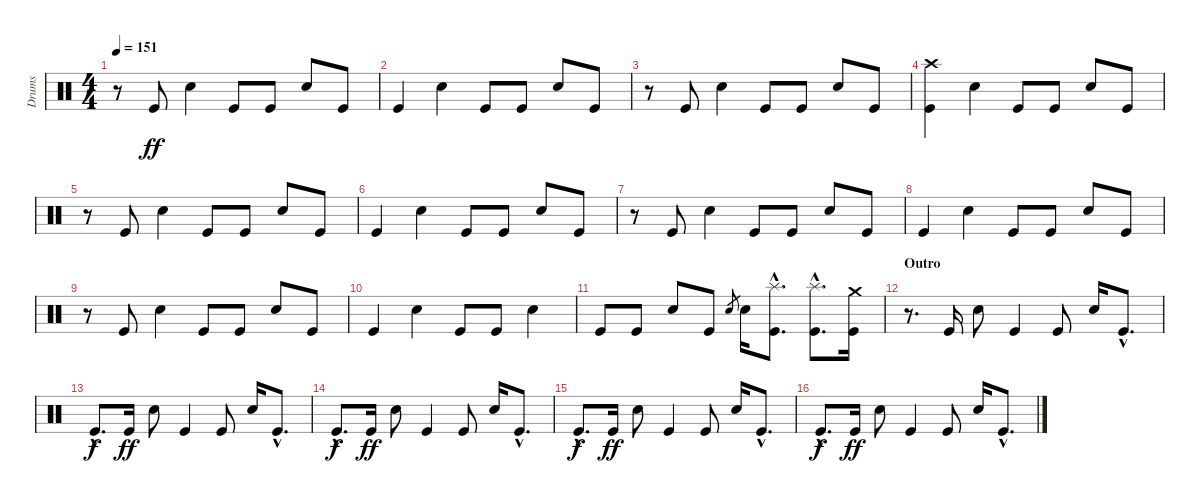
\track ("Drums" "Drums") {instrument percussion}
\staff {score}
\articulation defaults
\ts (4 4)
\tempo 151
\clef neutral
\ks c
r.8{dy ff} "Kick (hit)".8 "Snare (hit) 2".4 "Kick (hit)".8 "Kick (hit)".8 "Snare (hit) 2".8 "Kick (hit)".8 |
"Kick (hit)".4 "Snare (hit) 2".4 "Kick (hit)".8 "Kick (hit)".8 "Snare (hit) 2".8 "Kick (hit)".8 |
r.8 "Kick (hit)".8 "Snare (hit) 2".4 "Kick (hit)".8 "Kick (hit)".8 "Snare (hit) 2".8 "Kick (hit)".8 |
("Crash high (hit)" "Kick (hit)").4 "Snare (hit) 2".4 "Kick (hit)".8 "Kick (hit)".8 "Snare (hit) 2".8 "Kick (hit)".8 |
r.8 "Kick (hit)".8 "Snare (hit) 2".4 "Kick (hit)".8 "Kick (hit)".8 "Snare (hit) 2".8 "Kick (hit)".8 |
"Kick (hit)".4 "Snare (hit) 2".4 "Kick (hit)".8 "Kick (hit)".8 "Snare (hit) 2".8 "Kick (hit)".8 |
r.8 "Kick (hit)".8 "Snare (hit) 2".4 "Kick (hit)".8 "Kick (hit)".8 "Snare (hit) 2".8 "Kick (hit)".8 |
"Kick (hit)".4 "Snare (hit) 2".4 "Kick (hit)".8 "Kick (hit)".8 "Snare (hit) 2".8 "Kick (hit)".8 |
r.8 "Kick (hit)".8 "Snare (hit) 2".4 "Kick (hit)".8 "Kick (hit)".8 "Snare (hit) 2".8 "Kick (hit)".8 |
"Kick (hit)".4 "Snare (hit) 2".4 "Kick (hit)".8 "Kick (hit)".8 "Snare (hit) 2".4 |
"Kick (hit)".8 "Kick (hit)".8 "Snare (hit) 2".8 "Kick (hit)".8 "Snare (hit) 2".8{gr} "Snare (hit) 2".16 ("Splash (hit)"{hac} "Kick (hit)"{hac}).8{d} ("Splash (hit)"{hac} "Kick (hit)"{hac}).8{d} ("Crash medium (hit)" "Kick (hit)").16 |
\section ("" "Outro")
r.8{d} "Kick (hit)".16 "Snare (hit) 2".8 "Kick (hit)".4 "Kick (hit)".8 "Snare (hit) 2".16 "Kick (hit)"{hac}.8{d} |
"Kick (hit)"{hac}.8{d dy f} "Kick (hit)".16{dy ff} "Snare (hit) 2".8 "Kick (hit)".4 "Kick (hit)".8 "Snare (hit) 2".16 "Kick (hit)"{hac}.8{d} |
"Kick (hit)"{hac}.8{d dy f} "Kick (hit)".16{dy ff} "Snare (hit) 2".8 "Kick (hit)".4 "Kick (hit)".8 "Snare (hit) 2".16 "Kick (hit)"{hac}.8{d} |
"Kick (hit)"{hac}.8{d dy f} "Kick (hit)".16{dy ff} "Snare (hit) 2".8 "Kick (hit)".4 "Kick (hit)".8 "Snare (hit) 2".16 "Kick (hit)"{hac}.8{d} |
"Kick (hit)"{hac}.8{d dy f} "Kick (hit)".16{dy ff} "Snare (hit) 2".8 "Kick (hit)".4 "Kick (hit)".8 "Snare (hit) 2".16 "Kick (hit)"{hac}.8{d}
